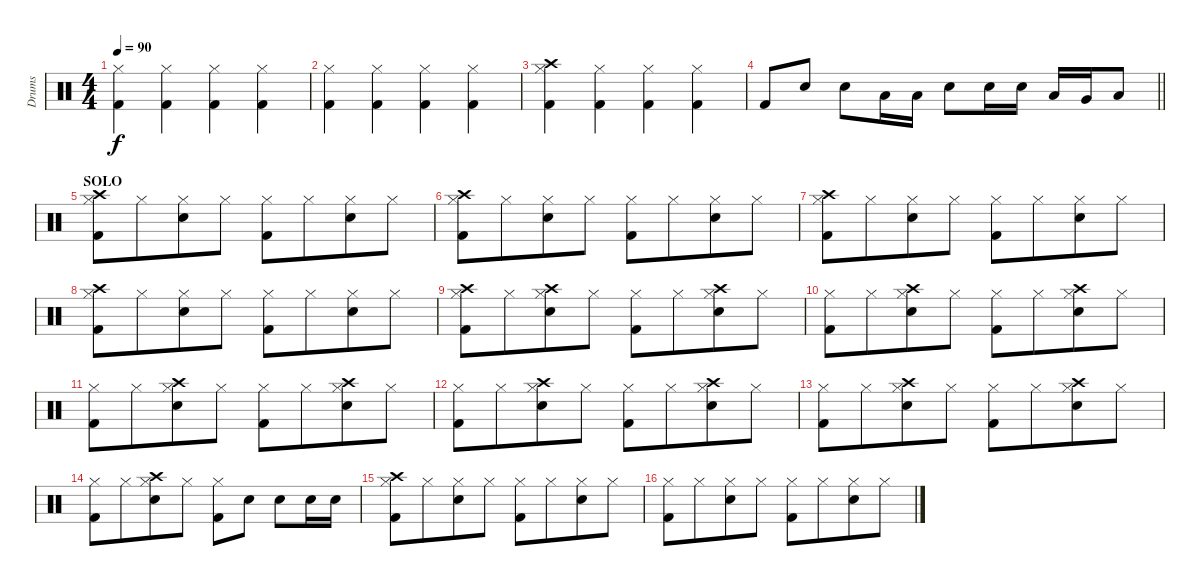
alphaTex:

\track ("Drums" "Drums") {instrument percussion}
\staff {score}
\articulation defaults
\ts (4 4)
\tempo 90
\clef neutral
\ks c
("Hi-Hat (closed)" "Kick (hit) 2").4{dy f} ("Hi-Hat (closed)" "Kick (hit) 2").4 ("Hi-Hat (closed)" "Kick (hit) 2").4 ("Hi-Hat (closed)" "Kick (hit) 2").4 |
("Hi-Hat (closed)" "Kick (hit) 2").4 ("Hi-Hat (closed)" "Kick (hit) 2").4 ("Hi-Hat (closed)" "Kick (hit) 2").4 ("Hi-Hat (closed)" "Kick (hit) 2").4 |
("Crash high (hit)" "Hi-Hat (closed)" "Kick (hit) 2").4 ("Hi-Hat (closed)" "Kick (hit) 2").4 ("Hi-Hat (closed)" "Kick (hit) 2").4 ("Hi-Hat (closed)" "Kick (hit) 2").4 |
\barLineRight lightlight "Kick (hit) 2".8 "Electric Snare (hit)".8 "Electric Snare (hit)".8 "Low Tom (hit)".16 "Low Tom (hit)".16 "Electric Snare (hit)".8 "Electric Snare (hit)".16 "Electric Snare (hit)".16 "Low Tom (hit)".16 "Very Low Tom (hit)".16 "Low Floor Tom (hit)".8
|
\section ("" "SOLO")
("Crash high (hit)" "Hi-Hat (closed)" "Kick (hit) 2").8 "Hi-Hat (closed)".8{beam merge} ("Hi-Hat (closed)" "Electric Snare (hit)").8 "Hi-Hat (closed)".8 ("Hi-Hat (closed)" "Kick (hit) 2").8 "Hi-Hat (closed)".8{beam merge} ("Hi-Hat (closed)" "Electric Snare (hit)").8 "Hi-Hat (closed)".8 |
("Crash high (hit)" "Hi-Hat (closed)" "Kick (hit) 2").8 "Hi-Hat (closed)".8{beam merge} ("Hi-Hat (closed)" "Electric Snare (hit)").8 "Hi-Hat (closed)".8 ("Hi-Hat (closed)" "Kick (hit) 2").8 "Hi-Hat (closed)".8{beam merge} ("Hi-Hat (closed)" "Electric Snare (hit)").8 "Hi-Hat (closed)".8 |
("Crash high (hit)" "Hi-Hat (closed)" "Kick (hit) 2").8 "Hi-Hat (closed)".8{beam merge} ("Hi-Hat (closed)" "Electric Snare (hit)").8 "Hi-Hat (closed)".8 ("Hi-Hat (closed)" "Kick (hit) 2").8 "Hi-Hat (closed)".8{beam merge} ("Hi-Hat (closed)" "Electric Snare (hit)").8 "Hi-Hat (closed)".8 |
("Crash high (hit)" "Hi-Hat (closed)" "Kick (hit) 2").8 "Hi-Hat (closed)".8{beam merge} ("Hi-Hat (closed)" "Electric Snare (hit)").8 "Hi-Hat (closed)".8 ("Hi-Hat (closed)" "Kick (hit) 2").8 "Hi-Hat (closed)".8{beam merge} ("Hi-Hat (closed)" "Electric Snare (hit)").8 "Hi-Hat (closed)".8 |
("Crash high (hit)" "Hi-Hat (closed)" "Kick (hit) 2").8 "Hi-Hat (closed)".8{beam merge} ("Crash high (hit)" "Hi-Hat (closed)" "Electric Snare (hit)").8 "Hi-Hat (closed)".8 ("Hi-Hat (closed)" "Kick (hit) 2").8 "Hi-Hat (closed)".8{beam merge} ("Crash high (hit)" "Hi-Hat (closed)" "Electric Snare (hit)").8 "Hi-Hat (closed)".8 |
("Hi-Hat (closed)" "Kick (hit) 2").8 "Hi-Hat (closed)".8{beam merge} ("Crash high (hit)" "Hi-Hat (closed)" "Electric Snare (hit)").8 "Hi-Hat (closed)".8 ("Hi-Hat (closed)" "Kick (hit) 2").8 "Hi-Hat (closed)".8{beam merge} ("Crash high (hit)" "Hi-Hat (closed)" "Electric Snare (hit)").8 "Hi-Hat (closed)".8 |
("Hi-Hat (closed)" "Kick (hit) 2").8 "Hi-Hat (closed)".8{beam merge} ("Crash high (hit)" "Hi-Hat (closed)" "Electric Snare (hit)").8 "Hi-Hat (closed)".8 ("Hi-Hat (closed)" "Kick (hit) 2").8 "Hi-Hat (closed)".8{beam merge} ("Crash high (hit)" "Hi-Hat (closed)" "Electric Snare (hit)").8 "Hi-Hat (closed)".8 |
("Hi-Hat (closed)" "Kick (hit) 2").8 "Hi-Hat (closed)".8{beam merge} ("Crash high (hit)" "Hi-Hat (closed)" "Electric Snare (hit)").8 "Hi-Hat (closed)".8 ("Hi-Hat (closed)" "Kick (hit) 2").8 "Hi-Hat (closed)".8{beam merge} ("Crash high (hit)" "Hi-Hat (closed)" "Electric Snare (hit)").8 "Hi-Hat (closed)".8 |
("Hi-Hat (closed)" "Kick (hit) 2").8 "Hi-Hat (closed)".8{beam merge} ("Crash high (hit)" "Hi-Hat (closed)" "Electric Snare (hit)").8 "Hi-Hat (closed)".8 ("Hi-Hat (closed)" "Kick (hit) 2").8 "Hi-Hat (closed)".8{beam merge} ("Crash high (hit)" "Hi-Hat (closed)" "Electric Snare (hit)").8 "Hi-Hat (closed)".8 |
("Hi-Hat (closed)" "Kick (hit) 2").8 "Hi-Hat (closed)".8{beam merge} ("Crash high (hit)" "Hi-Hat (closed)" "Electric Snare (hit)").8 "Hi-Hat (closed)".8 ("Hi-Hat (closed)" "Kick (hit) 2").8 "Electric Snare (hit)".8 "Electric Snare (hit)".8 "Electric Snare (hit)".16 "Electric Snare (hit)".16 |
("Crash high (hit)" "Hi-Hat (closed)" "Kick (hit) 2").8 "Hi-Hat (closed)".8{beam merge} ("Hi-Hat (closed)" "Electric Snare (hit)").8 "Hi-Hat (closed)".8 ("Hi-Hat (closed)" "Kick (hit) 2").8 "Hi-Hat (closed)".8{beam merge} ("Hi-Hat (closed)" "Electric Snare (hit)").8 "Hi-Hat (closed)".8 |
("Hi-Hat (closed)" "Kick (hit) 2").8 "Hi-Hat (closed)".8{beam merge} ("Hi-Hat (closed)" "Electric Snare (hit)").8 "Hi-Hat (closed)".8 ("Hi-Hat (closed)" "Kick (hit) 2").8 "Hi-Hat (closed)".8{beam merge} ("Hi-Hat (closed)" "Electric Snare (hit)").8 "Hi-Hat (closed)".8
